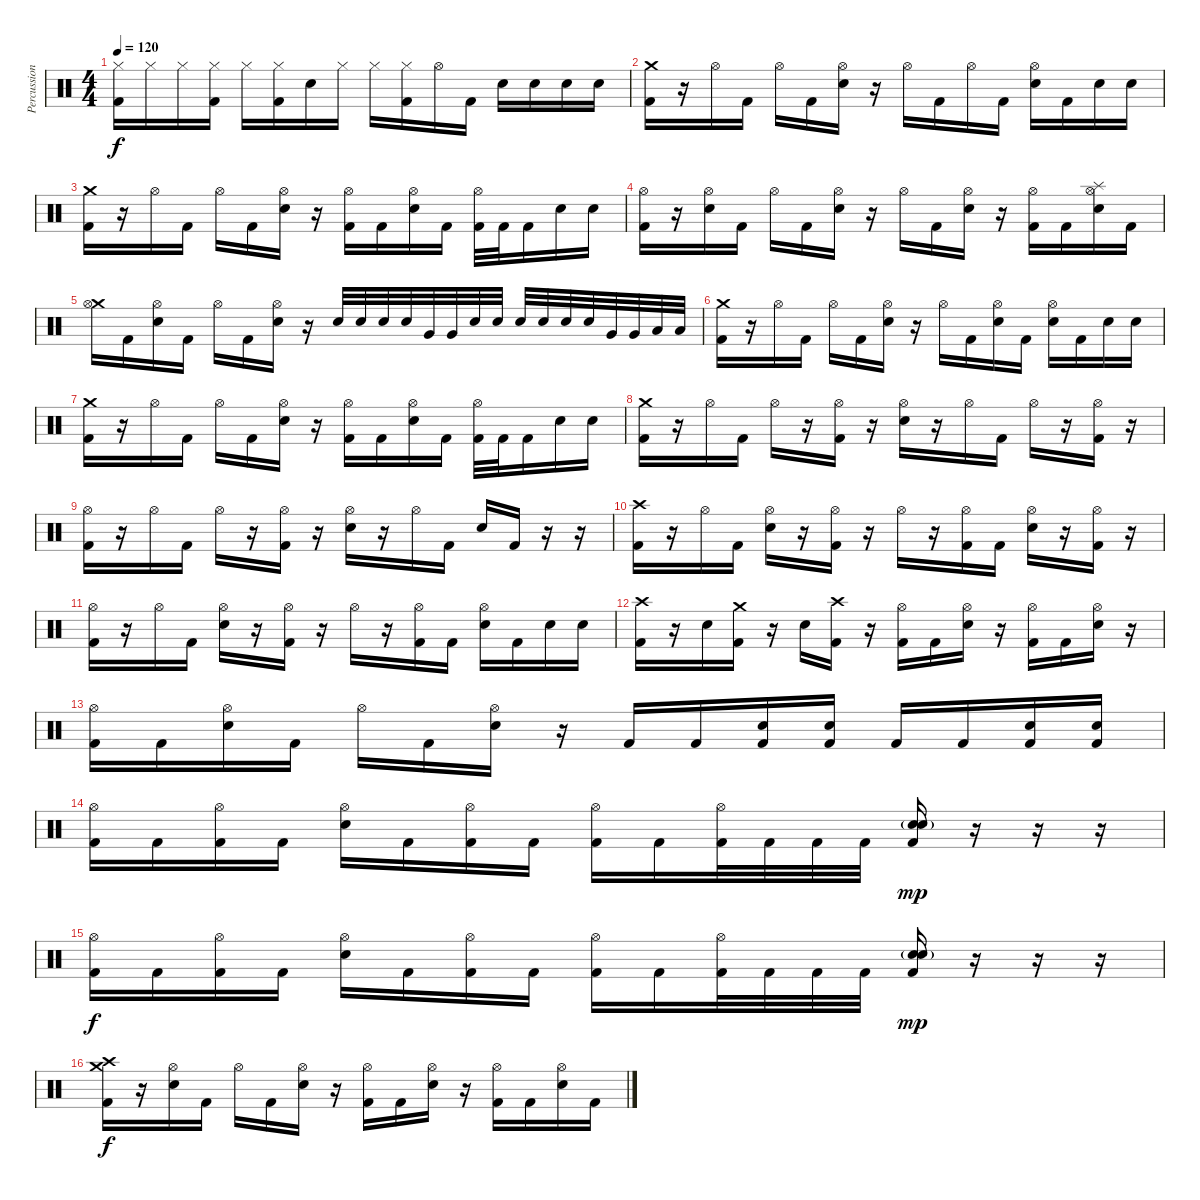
\track ("Percussion" "Percussion") {instrument percussion}
\staff {score}
\articulation defaults
\ts (4 4)
\tempo 120
\clef neutral
\ks c
("Hi-Hat (closed)" "Kick (hit) 2").16{dy f} "Hi-Hat (closed)".16 "Hi-Hat (closed)".16 ("Hi-Hat (closed)" "Kick (hit) 2").16 "Hi-Hat (closed)".16 ("Hi-Hat (closed)" "Kick (hit) 2").16 "Electric Snare (hit)".16 "Hi-Hat (closed)".16 "Hi-Hat (closed)".16 ("Hi-Hat (closed)" "Kick (hit) 2").16 "Hi-Hat (open)".16 "Kick (hit) 2".16 "Electric Snare (hit)".16 "Electric Snare (hit)".16 "Electric Snare (hit)".16 "Electric Snare (hit)".16 |
("Crash medium (hit)" "Kick (hit) 2").16 r.16 "Hi-Hat (open)".16 "Kick (hit) 2".16 "Hi-Hat (open)".16 "Kick (hit) 2".16 ("Hi-Hat (open)" "Electric Snare (hit)").16 r.16 "Hi-Hat (open)".16 "Kick (hit) 2".16 "Hi-Hat (open)".16 "Kick (hit) 2".16 ("Hi-Hat (open)" "Electric Snare (hit)").16 "Kick (hit) 2".16 "Electric Snare (hit)".16 "Electric Snare (hit)".16 |
("Crash medium (hit)" "Kick (hit) 2").16 r.16 "Hi-Hat (open)".16 "Kick (hit) 2".16 "Hi-Hat (open)".16 "Kick (hit) 2".16 ("Hi-Hat (open)" "Electric Snare (hit)").16 r.16 ("Hi-Hat (open)" "Kick (hit) 2").16 "Kick (hit) 2".16 ("Hi-Hat (open)" "Electric Snare (hit)").16 "Kick (hit) 2".16 ("Hi-Hat (open)" "Kick (hit) 2").32 "Kick (hit) 2".32 "Kick (hit) 2".16 "Electric Snare (hit)".16 "Electric Snare (hit)".16 |
("Hi-Hat (open)" "Kick (hit) 2").16 r.16 ("Hi-Hat (open)" "Electric Snare (hit)").16 "Kick (hit) 2".16 "Hi-Hat (open)".16 "Kick (hit) 2".16 ("Hi-Hat (open)" "Electric Snare (hit)").16 r.16 "Hi-Hat (open)".16 "Kick (hit) 2".16 ("Hi-Hat (open)" "Electric Snare (hit)").16 r.16 ("Hi-Hat (open)" "Kick (hit) 2").16 "Kick (hit) 2".16 ("Splash (hit)" "Hi-Hat (open)" "Electric Snare (hit)").16 "Kick (hit) 2".16 |
("Crash medium (hit)" "Hi-Hat (open)").16 "Kick (hit) 2".16 ("Hi-Hat (open)" "Electric Snare (hit)").16 "Kick (hit) 2".16 "Hi-Hat (open)".16 "Kick (hit) 2".16 ("Hi-Hat (open)" "Electric Snare (hit)").16 r.16 "Electric Snare (hit)".32 "Electric Snare (hit)".32 "Electric Snare (hit)".32 "Electric Snare (hit)".32 "Very Low Tom (hit)".32 "Very Low Tom (hit)".32 "Electric Snare (hit)".32 "Electric Snare (hit)".32 "Snare (hit) 2".32 "Snare (hit) 2".32 "Electric Snare (hit)".32 "Electric Snare (hit)".32 "Very Low Tom (hit)".32 "Very Low Tom (hit)".32 "Low Floor Tom (hit)".32 "Low Floor Tom (hit)".32 |
("Crash medium (hit)" "Kick (hit) 2").16 r.16 "Hi-Hat (open)".16 "Kick (hit) 2".16 "Hi-Hat (open)".16 "Kick (hit) 2".16 ("Hi-Hat (open)" "Electric Snare (hit)").16 r.16 "Hi-Hat (open)".16 "Kick (hit) 2".16 ("Hi-Hat (open)" "Electric Snare (hit)").16 "Kick (hit) 2".16 ("Hi-Hat (open)" "Electric Snare (hit)").16 "Kick (hit) 2".16 "Electric Snare (hit)".16 "Electric Snare (hit)".16 |
("Crash medium (hit)" "Kick (hit) 2").16 r.16 "Hi-Hat (open)".16 "Kick (hit) 2".16 "Hi-Hat (open)".16 "Kick (hit) 2".16 ("Hi-Hat (open)" "Electric Snare (hit)").16 r.16 ("Hi-Hat (open)" "Kick (hit) 2").16 "Kick (hit) 2".16 ("Hi-Hat (open)" "Electric Snare (hit)").16 "Kick (hit) 2".16 ("Hi-Hat (open)" "Kick (hit) 2").32 "Kick (hit) 2".32 "Kick (hit) 2".16 "Electric Snare (hit)".16 "Electric Snare (hit)".16 |
("Crash medium (hit)" "Kick (hit) 2").16 r.16 "Hi-Hat (open)".16 "Kick (hit) 2".16 "Hi-Hat (open)".16 r.16 ("Hi-Hat (open)" "Kick (hit) 2").16 r.16 ("Hi-Hat (open)" "Electric Snare (hit)").16 r.16 "Hi-Hat (open)".16 "Kick (hit) 2".16 "Hi-Hat (open)".16 r.16 ("Hi-Hat (open)" "Kick (hit) 2").16 r.16 |
("Hi-Hat (open)" "Kick (hit) 2").16 r.16 "Hi-Hat (open)".16 "Kick (hit) 2".16 "Hi-Hat (open)".16 r.16 ("Hi-Hat (open)" "Kick (hit) 2").16 r.16 ("Hi-Hat (open)" "Electric Snare (hit)").16 r.16 "Hi-Hat (open)".16 "Kick (hit) 2".16 "Electric Snare (hit)".16 "Kick (hit) 2".16 r.16 r.16 |
("Crash high (hit)" "Kick (hit) 2").16 r.16 "Hi-Hat (open)".16 "Kick (hit) 2".16 ("Hi-Hat (open)" "Electric Snare (hit)").16 r.16 ("Hi-Hat (open)" "Kick (hit) 2").16 r.16 "Hi-Hat (open)".16 r.16 ("Hi-Hat (open)" "Kick (hit) 2").16 "Kick (hit) 2".16 ("Hi-Hat (open)" "Electric Snare (hit)").16 r.16 ("Hi-Hat (open)" "Kick (hit) 2").16 r.16 |
("Hi-Hat (open)" "Kick (hit) 2").16 r.16 "Hi-Hat (open)".16 "Kick (hit) 2".16 ("Hi-Hat (open)" "Electric Snare (hit)").16 r.16 ("Hi-Hat (open)" "Kick (hit) 2").16 r.16 "Hi-Hat (open)".16 r.16 ("Hi-Hat (open)" "Kick (hit) 2").16 "Kick (hit) 2".16 ("Hi-Hat (open)" "Electric Snare (hit)").16 "Kick (hit) 2".16 "Electric Snare (hit)".16 "Electric Snare (hit)".16 |
("Crash high (hit)" "Kick (hit) 2").16 r.16 "Electric Snare (hit)".16 ("Crash medium (hit)" "Kick (hit) 2").16 r.16 "Electric Snare (hit)".16 ("Crash high (hit)" "Kick (hit) 2").16 r.16 ("Hi-Hat (open)" "Kick (hit) 2").16 "Kick (hit) 2".16 ("Hi-Hat (open)" "Electric Snare (hit)").16 r.16 ("Hi-Hat (open)" "Kick (hit) 2").16 "Kick (hit) 2".16 ("Hi-Hat (open)" "Electric Snare (hit)").16 r.16 |
("Hi-Hat (open)" "Kick (hit) 2").16 "Kick (hit) 2".16 ("Hi-Hat (open)" "Electric Snare (hit)").16 "Kick (hit) 2".16 "Hi-Hat (open)".16 "Kick (hit) 2".16 ("Hi-Hat (open)" "Electric Snare (hit)").16 r.16 "Kick (hit) 2".16 "Kick (hit) 2".16 ("Electric Snare (hit)" "Kick (hit) 2").16 ("Electric Snare (hit)" "Kick (hit) 2").16 "Kick (hit) 2".16 "Kick (hit) 2".16 ("Electric Snare (hit)" "Kick (hit) 2").16 ("Electric Snare (hit)" "Kick (hit) 2").16 |
("Hi-Hat (open)" "Kick (hit) 2").16 "Kick (hit) 2".16 ("Hi-Hat (open)" "Kick (hit) 2").16 "Kick (hit) 2".16 ("Hi-Hat (open)" "Electric Snare (hit)").16 "Kick (hit) 2".16 ("Hi-Hat (open)" "Kick (hit) 2").16 "Kick (hit) 2".16 ("Hi-Hat (open)" "Kick (hit) 2").16 "Kick (hit) 2".16 ("Hi-Hat (open)" "Kick (hit) 2").32 "Kick (hit) 2".32 "Kick (hit) 2".32 "Kick (hit) 2".32 ("Snare (hit) 2"{g} "Electric Snare (hit)" "Kick (hit) 2").16{dy mp} r.16 r.16 r.16 |
("Hi-Hat (open)" "Kick (hit) 2").16{dy f} "Kick (hit) 2".16 ("Hi-Hat (open)" "Kick (hit) 2").16 "Kick (hit) 2".16 ("Hi-Hat (open)" "Electric Snare (hit)").16 "Kick (hit) 2".16 ("Hi-Hat (open)" "Kick (hit) 2").16 "Kick (hit) 2".16 ("Hi-Hat (open)" "Kick (hit) 2").16 "Kick (hit) 2".16 ("Hi-Hat (open)" "Kick (hit) 2").32 "Kick (hit) 2".32 "Kick (hit) 2".32 "Kick (hit) 2".32 ("Snare (hit) 2"{g} "Electric Snare (hit)" "Kick (hit) 2").16{dy mp} r.16 r.16 r.16 |
("Crash high (hit)" "Crash medium (hit)" "Kick (hit) 2").16{dy f} r.16 ("Hi-Hat (open)" "Electric Snare (hit)").16 "Kick (hit) 2".16 "Hi-Hat (open)".16 "Kick (hit) 2".16 ("Hi-Hat (open)" "Electric Snare (hit)").16 r.16 ("Hi-Hat (open)" "Kick (hit) 2").16 "Kick (hit) 2".16 ("Hi-Hat (open)" "Electric Snare (hit)").16 r.16 ("Hi-Hat (open)" "Kick (hit) 2").16 "Kick (hit) 2".16 ("Hi-Hat (open)" "Electric Snare (hit)").16 "Kick (hit) 2".16
